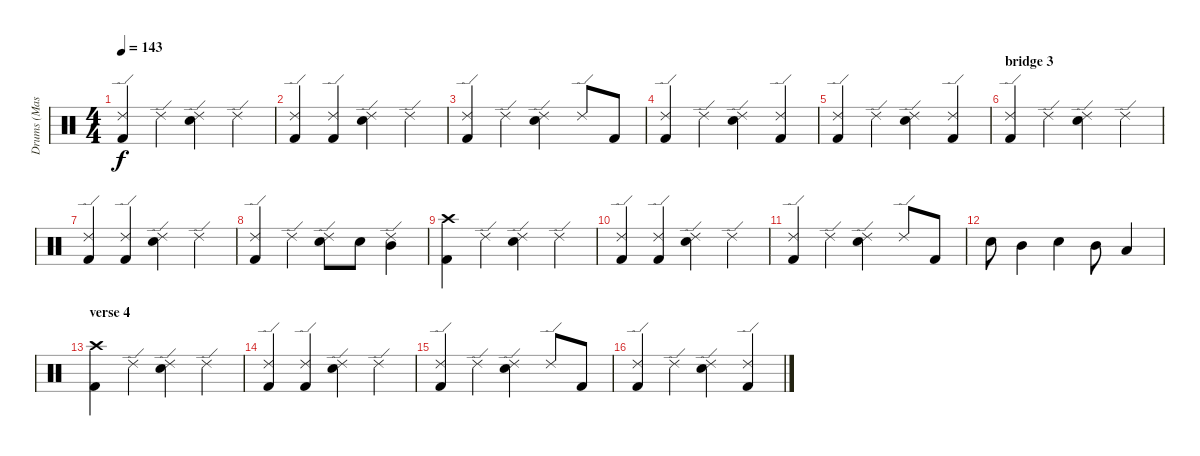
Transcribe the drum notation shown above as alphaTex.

\track ("Drums (Mason)" "Drums (Mas") {instrument percussion}
\staff {score}
\articulation defaults
\ts (4 4)
\tempo 143
\clef neutral
\ks c
("Ride (edge) 2" "Kick (hit) 2").4{dy f} "Ride (edge) 2".4 ("Ride (edge) 2" "Electric Snare (hit)").4 "Ride (edge) 2".4 |
("Ride (edge) 2" "Kick (hit) 2").4 ("Ride (edge) 2" "Kick (hit) 2").4 ("Ride (edge) 2" "Electric Snare (hit)").4 "Ride (edge) 2".4 |
("Ride (edge) 2" "Kick (hit) 2").4 "Ride (edge) 2".4 ("Ride (edge) 2" "Electric Snare (hit)").4 "Ride (edge) 2".8 "Kick (hit) 2".8 |
("Ride (edge) 2" "Kick (hit) 2").4 "Ride (edge) 2".4 ("Ride (edge) 2" "Electric Snare (hit)").4 ("Ride (edge) 2" "Kick (hit) 2").4 |
("Ride (edge) 2" "Kick (hit) 2").4 "Ride (edge) 2".4 ("Ride (edge) 2" "Electric Snare (hit)").4 ("Ride (edge) 2" "Kick (hit) 2").4 |
\section ("" "bridge 3")
("Ride (edge) 2" "Kick (hit) 2").4 "Ride (edge) 2".4 ("Ride (edge) 2" "Electric Snare (hit)").4 "Ride (edge) 2".4 |
("Ride (edge) 2" "Kick (hit) 2").4 ("Ride (edge) 2" "Kick (hit) 2").4 ("Ride (edge) 2" "Electric Snare (hit)").4 "Ride (edge) 2".4 |
("Ride (edge) 2" "Kick (hit) 2").4 "Ride (edge) 2".4 ("Ride (edge) 2" "Electric Snare (hit)").8 "Electric Snare (hit)".8 ("Ride (edge) 2" "Mid Tom (hit)").4 |
("Crash high (hit)" "Kick (hit) 2").4 "Ride (edge) 2".4 ("Ride (edge) 2" "Electric Snare (hit)").4 "Ride (edge) 2".4 |
("Ride (edge) 2" "Kick (hit) 2").4 ("Ride (edge) 2" "Kick (hit) 2").4 ("Ride (edge) 2" "Electric Snare (hit)").4 "Ride (edge) 2".4 |
("Ride (edge) 2" "Kick (hit) 2").4 "Ride (edge) 2".4 ("Ride (edge) 2" "Electric Snare (hit)").4 "Ride (edge) 2".8 "Kick (hit) 2".8 |
"Electric Snare (hit)".8 "Mid Tom (hit)".4 "Electric Snare (hit)".4 "Mid Tom (hit)".8 "Low Tom (hit)".4 |
\section ("" "verse 4")
("Crash high (hit)" "Kick (hit) 2").4 "Ride (edge) 2".4 ("Ride (edge) 2" "Electric Snare (hit)").4 "Ride (edge) 2".4 |
("Ride (edge) 2" "Kick (hit) 2").4 ("Ride (edge) 2" "Kick (hit) 2").4 ("Ride (edge) 2" "Electric Snare (hit)").4 "Ride (edge) 2".4 |
("Ride (edge) 2" "Kick (hit) 2").4 "Ride (edge) 2".4 ("Ride (edge) 2" "Electric Snare (hit)").4 "Ride (edge) 2".8 "Kick (hit) 2".8 |
("Ride (edge) 2" "Kick (hit) 2").4 "Ride (edge) 2".4 ("Ride (edge) 2" "Electric Snare (hit)").4 ("Ride (edge) 2" "Kick (hit) 2").4
